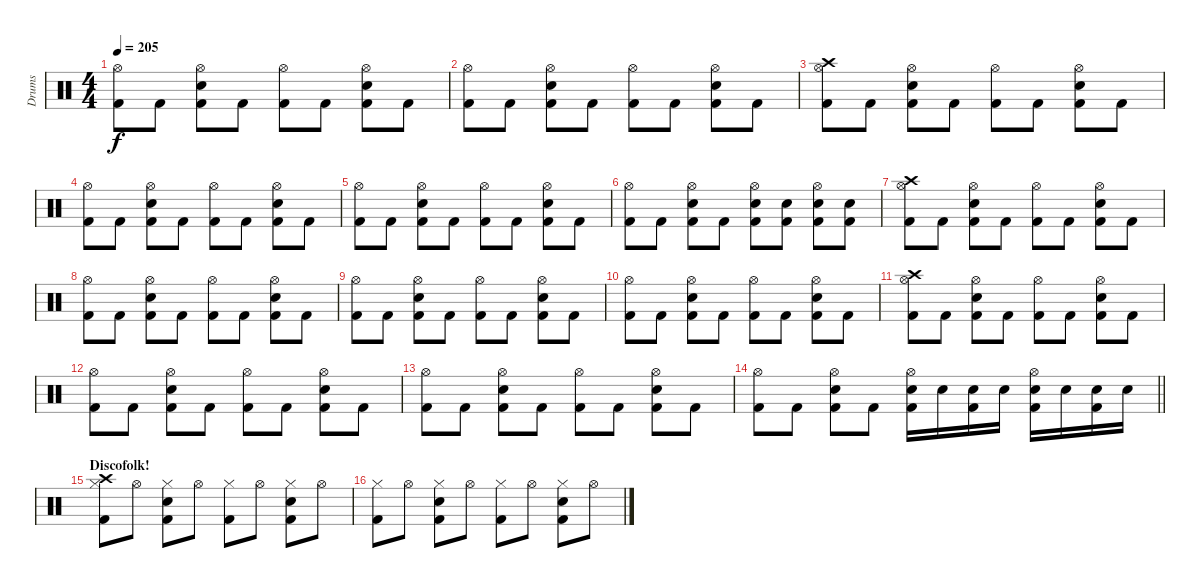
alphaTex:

\track ("Drums" "Drums") {instrument percussion}
\staff {score}
\articulation defaults
\ts (4 4)
\tempo 205
\clef neutral
\ks c
("Hi-Hat (open)" "Kick (hit) 2").8{dy f} "Kick (hit) 2".8 ("Hi-Hat (open)" "Snare (hit) 2" "Kick (hit) 2").8 "Kick (hit) 2".8 ("Hi-Hat (open)" "Kick (hit) 2").8 "Kick (hit) 2".8 ("Hi-Hat (open)" "Snare (hit) 2" "Kick (hit) 2").8 "Kick (hit) 2".8 |
("Hi-Hat (open)" "Kick (hit) 2").8 "Kick (hit) 2".8 ("Hi-Hat (open)" "Snare (hit) 2" "Kick (hit) 2").8 "Kick (hit) 2".8 ("Hi-Hat (open)" "Kick (hit) 2").8 "Kick (hit) 2".8 ("Hi-Hat (open)" "Snare (hit) 2" "Kick (hit) 2").8 "Kick (hit) 2".8 |
("Crash high (hit)" "Hi-Hat (open)" "Kick (hit) 2").8 "Kick (hit) 2".8 ("Hi-Hat (open)" "Snare (hit) 2" "Kick (hit) 2").8 "Kick (hit) 2".8 ("Hi-Hat (open)" "Kick (hit) 2").8 "Kick (hit) 2".8 ("Hi-Hat (open)" "Snare (hit) 2" "Kick (hit) 2").8 "Kick (hit) 2".8 |
("Hi-Hat (open)" "Kick (hit) 2").8 "Kick (hit) 2".8 ("Hi-Hat (open)" "Snare (hit) 2" "Kick (hit) 2").8 "Kick (hit) 2".8 ("Hi-Hat (open)" "Kick (hit) 2").8 "Kick (hit) 2".8 ("Hi-Hat (open)" "Snare (hit) 2" "Kick (hit) 2").8 "Kick (hit) 2".8 |
("Hi-Hat (open)" "Kick (hit) 2").8 "Kick (hit) 2".8 ("Hi-Hat (open)" "Snare (hit) 2" "Kick (hit) 2").8 "Kick (hit) 2".8 ("Hi-Hat (open)" "Kick (hit) 2").8 "Kick (hit) 2".8 ("Hi-Hat (open)" "Snare (hit) 2" "Kick (hit) 2").8 "Kick (hit) 2".8 |
("Hi-Hat (open)" "Kick (hit) 2").8 "Kick (hit) 2".8 ("Hi-Hat (open)" "Snare (hit) 2" "Kick (hit) 2").8 "Kick (hit) 2".8 ("Hi-Hat (open)" "Snare (hit) 2" "Kick (hit) 2").8 ("Snare (hit) 2" "Kick (hit) 2").8 ("Hi-Hat (open)" "Snare (hit) 2" "Kick (hit) 2").8 ("Snare (hit) 2" "Kick (hit) 2").8 |
("Crash high (hit)" "Hi-Hat (open)" "Kick (hit) 2").8 "Kick (hit) 2".8 ("Hi-Hat (open)" "Snare (hit) 2" "Kick (hit) 2").8 "Kick (hit) 2".8 ("Hi-Hat (open)" "Kick (hit) 2").8 "Kick (hit) 2".8 ("Hi-Hat (open)" "Snare (hit) 2" "Kick (hit) 2").8 "Kick (hit) 2".8 |
("Hi-Hat (open)" "Kick (hit) 2").8 "Kick (hit) 2".8 ("Hi-Hat (open)" "Snare (hit) 2" "Kick (hit) 2").8 "Kick (hit) 2".8 ("Hi-Hat (open)" "Kick (hit) 2").8 "Kick (hit) 2".8 ("Hi-Hat (open)" "Snare (hit) 2" "Kick (hit) 2").8 "Kick (hit) 2".8 |
("Hi-Hat (open)" "Kick (hit) 2").8 "Kick (hit) 2".8 ("Hi-Hat (open)" "Snare (hit) 2" "Kick (hit) 2").8 "Kick (hit) 2".8 ("Hi-Hat (open)" "Kick (hit) 2").8 "Kick (hit) 2".8 ("Hi-Hat (open)" "Snare (hit) 2" "Kick (hit) 2").8 "Kick (hit) 2".8 |
("Hi-Hat (open)" "Kick (hit) 2").8 "Kick (hit) 2".8 ("Hi-Hat (open)" "Snare (hit) 2" "Kick (hit) 2").8 "Kick (hit) 2".8 ("Hi-Hat (open)" "Kick (hit) 2").8 "Kick (hit) 2".8 ("Hi-Hat (open)" "Snare (hit) 2" "Kick (hit) 2").8 "Kick (hit) 2".8 |
("Crash high (hit)" "Hi-Hat (open)" "Kick (hit) 2").8 "Kick (hit) 2".8 ("Hi-Hat (open)" "Snare (hit) 2" "Kick (hit) 2").8 "Kick (hit) 2".8 ("Hi-Hat (open)" "Kick (hit) 2").8 "Kick (hit) 2".8 ("Hi-Hat (open)" "Snare (hit) 2" "Kick (hit) 2").8 "Kick (hit) 2".8 |
("Hi-Hat (open)" "Kick (hit) 2").8 "Kick (hit) 2".8 ("Hi-Hat (open)" "Snare (hit) 2" "Kick (hit) 2").8 "Kick (hit) 2".8 ("Hi-Hat (open)" "Kick (hit) 2").8 "Kick (hit) 2".8 ("Hi-Hat (open)" "Snare (hit) 2" "Kick (hit) 2").8 "Kick (hit) 2".8 |
("Hi-Hat (open)" "Kick (hit) 2").8 "Kick (hit) 2".8 ("Hi-Hat (open)" "Snare (hit) 2" "Kick (hit) 2").8 "Kick (hit) 2".8 ("Hi-Hat (open)" "Kick (hit) 2").8 "Kick (hit) 2".8 ("Hi-Hat (open)" "Snare (hit) 2" "Kick (hit) 2").8 "Kick (hit) 2".8 |
\barLineRight lightlight
("Hi-Hat (open)" "Kick (hit) 2").8 "Kick (hit) 2".8 ("Hi-Hat (open)" "Snare (hit) 2" "Kick (hit) 2").8 "Kick (hit) 2".8 ("Hi-Hat (open)" "Snare (hit) 2" "Kick (hit) 2").16 "Snare (hit) 2".16 ("Snare (hit) 2" "Kick (hit) 2").16 "Snare (hit) 2".16 ("Hi-Hat (open)" "Snare (hit) 2" "Kick (hit) 2").16 "Snare (hit) 2".16 ("Snare (hit) 2" "Kick (hit) 2").16 "Snare (hit) 2".16 |
\section ("" "Discofolk!")
("Crash high (hit)" "Hi-Hat (closed)" "Kick (hit) 2").8 "Hi-Hat (open)".8 ("Hi-Hat (closed)" "Snare (hit) 2" "Kick (hit) 2").8 "Hi-Hat (open)".8 ("Hi-Hat (closed)" "Kick (hit) 2").8 "Hi-Hat (open)".8 ("Hi-Hat (closed)" "Snare (hit) 2" "Kick (hit) 2").8 "Hi-Hat (open)".8 |
("Hi-Hat (closed)" "Kick (hit) 2").8 "Hi-Hat (open)".8 ("Hi-Hat (closed)" "Snare (hit) 2" "Kick (hit) 2").8 "Hi-Hat (open)".8 ("Hi-Hat (closed)" "Kick (hit) 2").8 "Hi-Hat (open)".8 ("Hi-Hat (closed)" "Snare (hit) 2" "Kick (hit) 2").8 "Hi-Hat (open)".8
